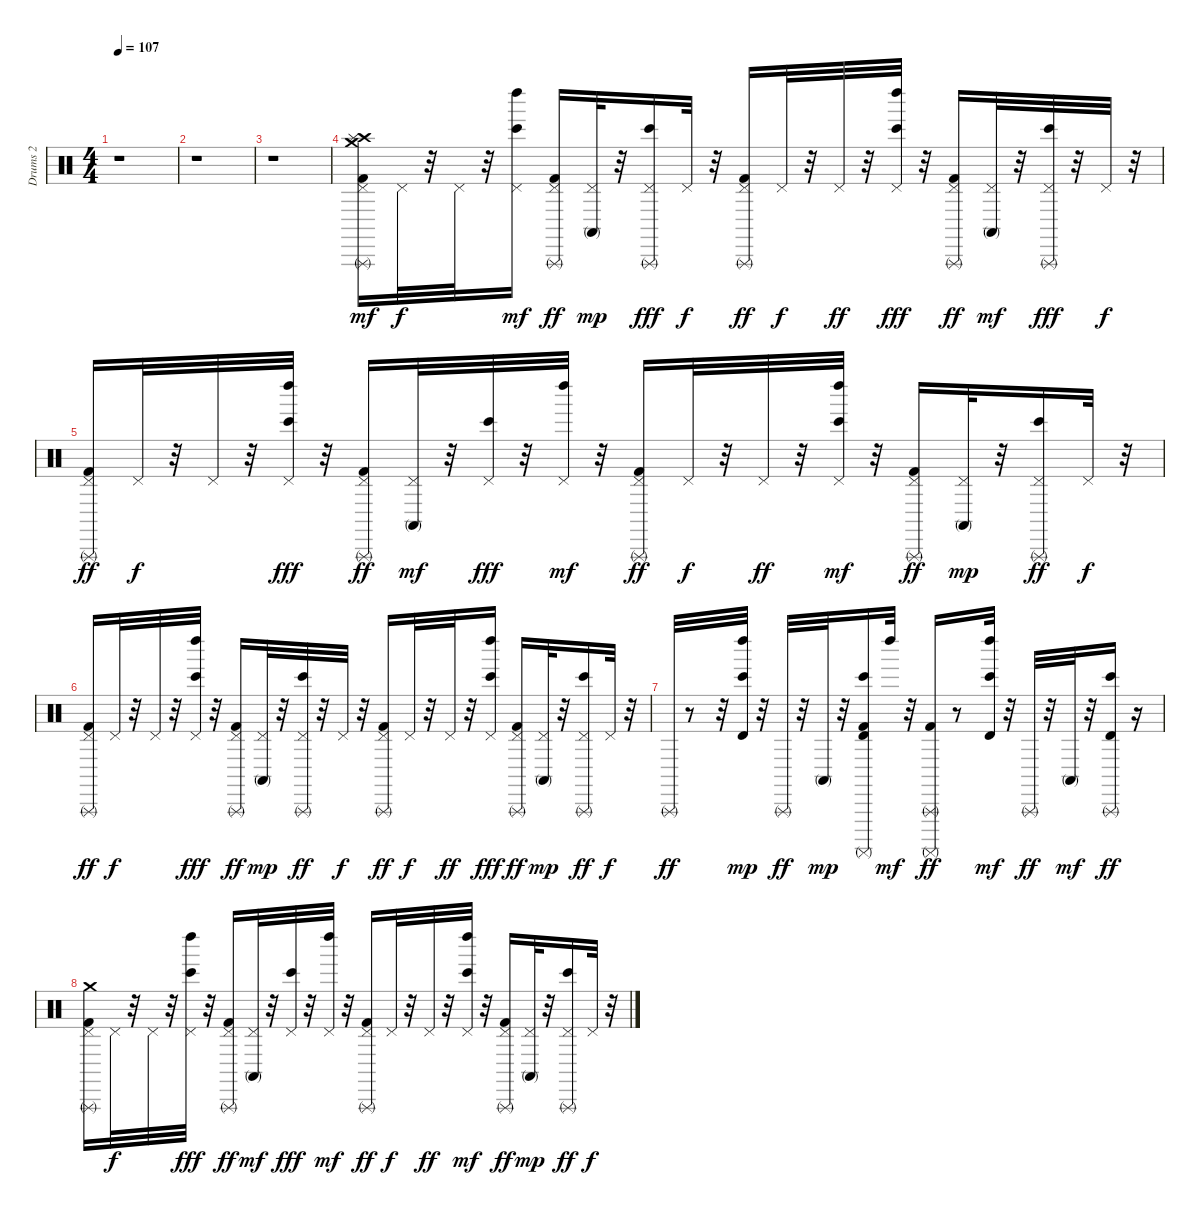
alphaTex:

\track ("Drums 2" "Drums 2") {instrument percussion}
\staff {score}
\articulation defaults
\ts (4 4)
\tempo 107
\clef neutral
\ks c
r.1{dy mf} |
r.1 |
r.1 |
("Kick (hit) 2" "Pedal Hi-Hat (hit)" "Triangle (rnute)" "Crash medium (hit)" "Crash high (hit)" "Splash (hit)").16 "Pedal Hi-Hat (hit)".32{dy f} r.32 "Pedal Hi-Hat (hit)".32 r.32 ("Pedal Hi-Hat (hit)" "Bongo High (hit)" "Left Maraca (hit)").16{dy mf} ("Kick (hit) 2" "Pedal Hi-Hat (hit)" "Triangle (rnute)").16{dy ff} ("Pedal Hi-Hat (hit)" "Conga high (mute)").32{dy mp} r.32 ("Pedal Hi-Hat (hit)" "Bongo High (hit)" "Triangle (rnute)").16{dy fff} "Pedal Hi-Hat (hit)".32{dy f} r.32 ("Kick (hit) 2" "Pedal Hi-Hat (hit)" "Triangle (rnute)").16{dy ff} "Pedal Hi-Hat (hit)".32{dy f} r.32 "Pedal Hi-Hat (hit)".32{dy ff} r.32 ("Pedal Hi-Hat (hit)" "Bongo High (hit)" "Left Maraca (hit)").32{dy fff} r.32 ("Kick (hit) 2" "Pedal Hi-Hat (hit)" "Triangle (rnute)").16{dy ff} ("Pedal Hi-Hat (hit)" "Conga high (mute)").32{dy mf} r.32 ("Pedal Hi-Hat (hit)" "Bongo High (hit)" "Triangle (rnute)").32{dy fff} r.32 "Pedal Hi-Hat (hit)".32{dy f} r.32 |
("Kick (hit) 2" "Pedal Hi-Hat (hit)" "Triangle (rnute)").16{dy ff} "Pedal Hi-Hat (hit)".32{dy f} r.32 "Pedal Hi-Hat (hit)".32 r.32 ("Pedal Hi-Hat (hit)" "Bongo High (hit)" "Left Maraca (hit)").32{dy fff} r.32 ("Kick (hit) 2" "Pedal Hi-Hat (hit)" "Triangle (rnute)").16{dy ff} ("Pedal Hi-Hat (hit)" "Conga high (mute)").32{dy mf} r.32 ("Pedal Hi-Hat (hit)" "Bongo High (hit)").32{dy fff} r.32 ("Pedal Hi-Hat (hit)" "Left Maraca (hit)").32{dy mf} r.32 ("Kick (hit) 2" "Pedal Hi-Hat (hit)" "Triangle (rnute)").16{dy ff} "Pedal Hi-Hat (hit)".32{dy f} r.32 "Pedal Hi-Hat (hit)".32{dy ff} r.32 ("Pedal Hi-Hat (hit)" "Bongo High (hit)" "Left Maraca (hit)").32{dy mf} r.32 ("Kick (hit) 2" "Pedal Hi-Hat (hit)" "Triangle (rnute)").16{dy ff} ("Pedal Hi-Hat (hit)" "Conga high (mute)").32{dy mp} r.32 ("Pedal Hi-Hat (hit)" "Bongo High (hit)" "Triangle (rnute)").16{dy ff} "Pedal Hi-Hat (hit)".32{dy f} r.32 |
("Kick (hit) 2" "Pedal Hi-Hat (hit)" "Triangle (rnute)").16{dy ff} "Pedal Hi-Hat (hit)".32{dy f} r.32 "Pedal Hi-Hat (hit)".32 r.32 ("Pedal Hi-Hat (hit)" "Bongo High (hit)" "Left Maraca (hit)").32{dy fff} r.32 ("Kick (hit) 2" "Pedal Hi-Hat (hit)" "Triangle (rnute)").16{dy ff} ("Pedal Hi-Hat (hit)" "Conga high (mute)").32{dy mp} r.32 ("Pedal Hi-Hat (hit)" "Bongo High (hit)" "Triangle (rnute)").32{dy ff} r.32 "Pedal Hi-Hat (hit)".32{dy f} r.32 ("Kick (hit) 2" "Pedal Hi-Hat (hit)" "Triangle (rnute)").16{dy ff} "Pedal Hi-Hat (hit)".32{dy f} r.32 "Pedal Hi-Hat (hit)".32{dy ff} r.32 ("Pedal Hi-Hat (hit)" "Bongo High (hit)" "Left Maraca (hit)").16{dy fff} ("Kick (hit) 2" "Pedal Hi-Hat (hit)" "Triangle (rnute)").16{dy ff} ("Pedal Hi-Hat (hit)" "Conga high (mute)").32{dy mp} r.32 ("Pedal Hi-Hat (hit)" "Bongo High (hit)" "Triangle (rnute)").16{dy ff} "Pedal Hi-Hat (hit)".32{dy f} r.32 |
"Triangle (rnute)".32{dy ff} r.8 r.32 ("Bongo High (hit)" "Timbale high (hit)" "Left Maraca (hit)").32{dy mp} r.32 "Triangle (rnute)".32{dy ff} r.32 "Conga high (mute)".32{dy mp} r.32 ("Bongo High (hit)" "Timbale high (hit)" "Kick (hit) 2" "Surdo (mute)").16 "Left Maraca (hit)".32{dy mf} r.32 ("Kick (hit) 2" "Surdo (mute)" "Triangle (rnute)").16{dy ff} r.8 ("Bongo High (hit)" "Timbale high (hit)" "Left Maraca (hit)").32{dy mf} r.32 "Triangle (rnute)".32{dy ff} r.32 "Conga high (mute)".32{dy mf} r.32 ("Bongo High (hit)" "Timbale high (hit)" "Triangle (rnute)").16{dy ff} r.16 |
("Kick (hit) 2" "Pedal Hi-Hat (hit)" "Triangle (rnute)" "Crash medium (hit)").16 "Pedal Hi-Hat (hit)".32{dy f} r.32 "Pedal Hi-Hat (hit)".32 r.32 ("Pedal Hi-Hat (hit)" "Bongo High (hit)" "Left Maraca (hit)").32{dy fff} r.32 ("Kick (hit) 2" "Pedal Hi-Hat (hit)" "Triangle (rnute)").16{dy ff} ("Pedal Hi-Hat (hit)" "Conga high (mute)").32{dy mf} r.32 ("Pedal Hi-Hat (hit)" "Bongo High (hit)").32{dy fff} r.32 ("Pedal Hi-Hat (hit)" "Left Maraca (hit)").32{dy mf} r.32 ("Kick (hit) 2" "Pedal Hi-Hat (hit)" "Triangle (rnute)").16{dy ff} "Pedal Hi-Hat (hit)".32{dy f} r.32 "Pedal Hi-Hat (hit)".32{dy ff} r.32 ("Pedal Hi-Hat (hit)" "Bongo High (hit)" "Left Maraca (hit)").32{dy mf} r.32 ("Kick (hit) 2" "Pedal Hi-Hat (hit)" "Triangle (rnute)").16{dy ff} ("Pedal Hi-Hat (hit)" "Conga high (mute)").32{dy mp} r.32 ("Pedal Hi-Hat (hit)" "Bongo High (hit)" "Triangle (rnute)").16{dy ff} "Pedal Hi-Hat (hit)".32{dy f} r.32
